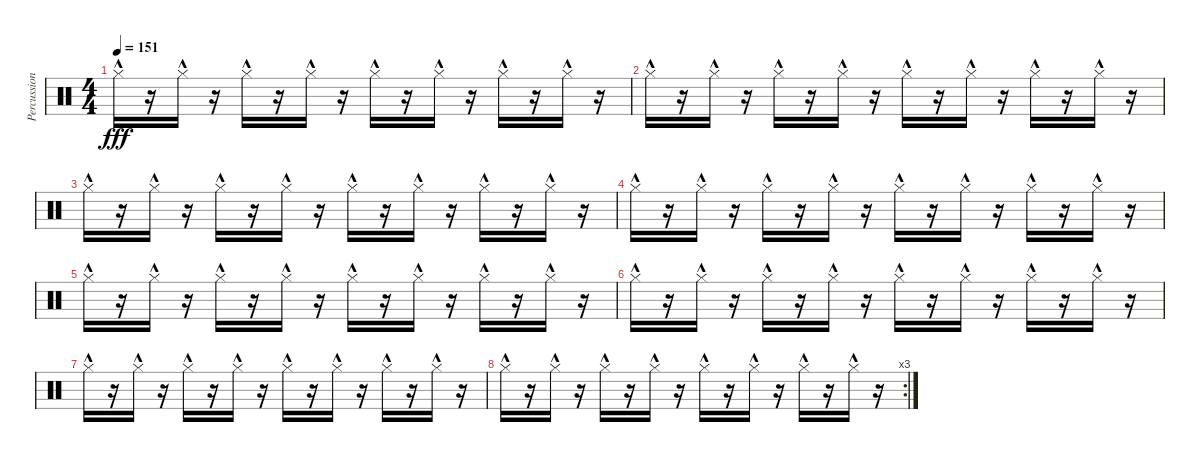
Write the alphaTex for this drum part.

\track ("Percussion" "Percussion") {instrument percussion}
\staff {score}
\articulation defaults
\ts (4 4)
\tempo 151
\clef neutral
\ks c "Hi-Hat (closed)"{hac}.16{dy fff}
r.16 "Hi-Hat (closed)"{hac}.16 r.16 "Hi-Hat (closed)"{hac}.16 r.16 "Hi-Hat (closed)"{hac}.16 r.16 "Hi-Hat (closed)"{hac}.16 r.16 "Hi-Hat (closed)"{hac}.16 r.16 "Hi-Hat (closed)"{hac}.16 r.16 "Hi-Hat (closed)"{hac}.16 r.16 |
"Hi-Hat (closed)"{hac}.16 r.16 "Hi-Hat (closed)"{hac}.16 r.16 "Hi-Hat (closed)"{hac}.16 r.16 "Hi-Hat (closed)"{hac}.16 r.16 "Hi-Hat (closed)"{hac}.16 r.16 "Hi-Hat (closed)"{hac}.16 r.16 "Hi-Hat (closed)"{hac}.16 r.16 "Hi-Hat (closed)"{hac}.16 r.16 |
"Hi-Hat (closed)"{hac}.16 r.16 "Hi-Hat (closed)"{hac}.16 r.16 "Hi-Hat (closed)"{hac}.16 r.16 "Hi-Hat (closed)"{hac}.16 r.16 "Hi-Hat (closed)"{hac}.16 r.16 "Hi-Hat (closed)"{hac}.16 r.16 "Hi-Hat (closed)"{hac}.16 r.16 "Hi-Hat (closed)"{hac}.16 r.16 |
"Hi-Hat (closed)"{hac}.16 r.16 "Hi-Hat (closed)"{hac}.16 r.16 "Hi-Hat (closed)"{hac}.16 r.16 "Hi-Hat (closed)"{hac}.16 r.16 "Hi-Hat (closed)"{hac}.16 r.16 "Hi-Hat (closed)"{hac}.16 r.16 "Hi-Hat (closed)"{hac}.16 r.16 "Hi-Hat (closed)"{hac}.16 r.16 |
"Hi-Hat (closed)"{hac}.16 r.16 "Hi-Hat (closed)"{hac}.16 r.16 "Hi-Hat (closed)"{hac}.16 r.16 "Hi-Hat (closed)"{hac}.16 r.16 "Hi-Hat (closed)"{hac}.16 r.16 "Hi-Hat (closed)"{hac}.16 r.16 "Hi-Hat (closed)"{hac}.16 r.16 "Hi-Hat (closed)"{hac}.16 r.16 |
"Hi-Hat (closed)"{hac}.16 r.16 "Hi-Hat (closed)"{hac}.16 r.16 "Hi-Hat (closed)"{hac}.16 r.16 "Hi-Hat (closed)"{hac}.16 r.16 "Hi-Hat (closed)"{hac}.16 r.16 "Hi-Hat (closed)"{hac}.16 r.16 "Hi-Hat (closed)"{hac}.16 r.16 "Hi-Hat (closed)"{hac}.16 r.16 |
"Hi-Hat (closed)"{hac}.16 r.16 "Hi-Hat (closed)"{hac}.16 r.16 "Hi-Hat (closed)"{hac}.16 r.16 "Hi-Hat (closed)"{hac}.16 r.16 "Hi-Hat (closed)"{hac}.16 r.16 "Hi-Hat (closed)"{hac}.16 r.16 "Hi-Hat (closed)"{hac}.16 r.16 "Hi-Hat (closed)"{hac}.16 r.16 |
\rc 3 "Hi-Hat (closed)"{hac}.16
r.16 "Hi-Hat (closed)"{hac}.16 r.16 "Hi-Hat (closed)"{hac}.16 r.16 "Hi-Hat (closed)"{hac}.16 r.16 "Hi-Hat (closed)"{hac}.16 r.16 "Hi-Hat (closed)"{hac}.16 r.16 "Hi-Hat (closed)"{hac}.16 r.16 "Hi-Hat (closed)"{hac}.16 r.16
